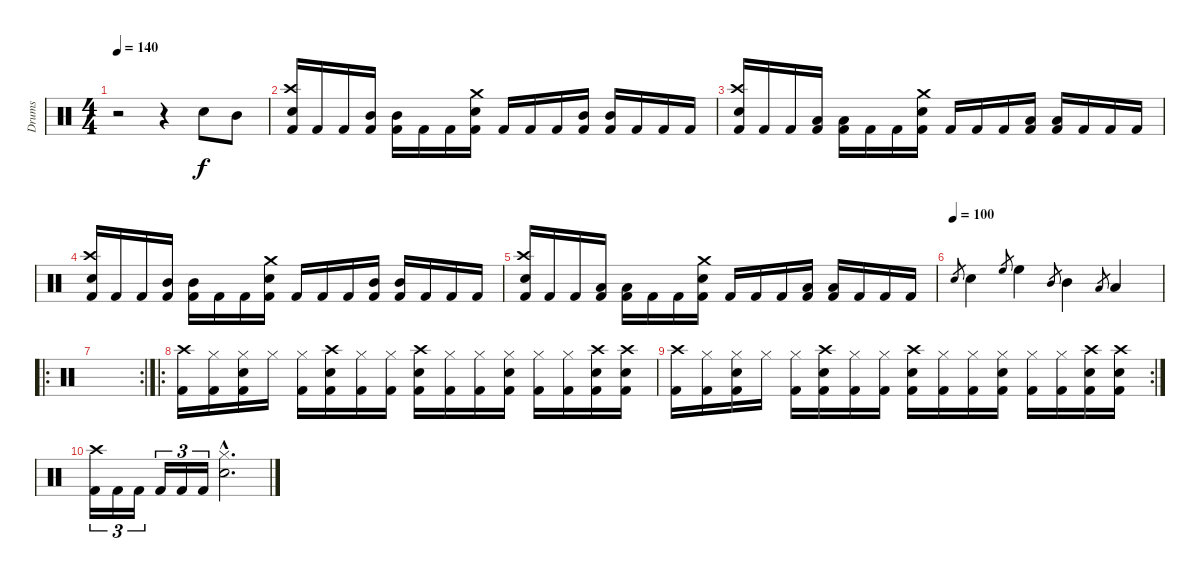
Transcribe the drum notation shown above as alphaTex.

\track ("Drums" "Drums") {instrument percussion}
\staff {score}
\articulation defaults
\ts (4 4)
\tempo 140
\clef neutral
\ks c
r.2{dy f} r.4 "Snare (hit) 2".8 "Mid Tom (hit)".8 |
("Crash high (hit)" "Snare (hit) 2" "Kick (hit) 2").16 "Kick (hit) 2".16 "Kick (hit) 2".16 ("Mid Tom (hit)" "Kick (hit) 2").16 ("Mid Tom (hit)" "Kick (hit) 2").16 "Kick (hit) 2".16 "Kick (hit) 2".16 ("Snare (hit) 2" "Crash medium (hit)" "Kick (hit) 2").16 "Kick (hit) 2".16 "Kick (hit) 2".16 "Kick (hit) 2".16 ("Mid Tom (hit)" "Kick (hit) 2").16 ("Mid Tom (hit)" "Kick (hit) 2").16 "Kick (hit) 2".16 "Kick (hit) 2".16 "Kick (hit) 2".16 |
("Crash high (hit)" "Snare (hit) 2" "Kick (hit) 2").16 "Kick (hit) 2".16 "Kick (hit) 2".16 ("Low Floor Tom (hit)" "Kick (hit) 2").16 ("Low Floor Tom (hit)" "Kick (hit) 2").16 "Kick (hit) 2".16 "Kick (hit) 2".16 ("Crash medium (hit)" "Snare (hit) 2" "Kick (hit) 2").16 "Kick (hit) 2".16 "Kick (hit) 2".16 "Kick (hit) 2".16 ("Low Floor Tom (hit)" "Kick (hit) 2").16 ("Low Floor Tom (hit)" "Kick (hit) 2").16 "Kick (hit) 2".16 "Kick (hit) 2".16 "Kick (hit) 2".16 |
("Crash high (hit)" "Snare (hit) 2" "Kick (hit) 2").16 "Kick (hit) 2".16 "Kick (hit) 2".16 ("Mid Tom (hit)" "Kick (hit) 2").16 ("Mid Tom (hit)" "Kick (hit) 2").16 "Kick (hit) 2".16 "Kick (hit) 2".16 ("Snare (hit) 2" "Crash medium (hit)" "Kick (hit) 2").16 "Kick (hit) 2".16 "Kick (hit) 2".16 "Kick (hit) 2".16 ("Mid Tom (hit)" "Kick (hit) 2").16 ("Mid Tom (hit)" "Kick (hit) 2").16 "Kick (hit) 2".16 "Kick (hit) 2".16 "Kick (hit) 2".16 |
("Crash high (hit)" "Snare (hit) 2" "Kick (hit) 2").16 "Kick (hit) 2".16 "Kick (hit) 2".16 ("Low Floor Tom (hit)" "Kick (hit) 2").16 ("Low Floor Tom (hit)" "Kick (hit) 2").16 "Kick (hit) 2".16 "Kick (hit) 2".16 ("Crash medium (hit)" "Snare (hit) 2" "Kick (hit) 2").16 "Kick (hit) 2".16 "Kick (hit) 2".16 "Kick (hit) 2".16 ("Low Floor Tom (hit)" "Kick (hit) 2").16 ("Low Floor Tom (hit)" "Kick (hit) 2").16 "Kick (hit) 2".16 "Kick (hit) 2".16 "Kick (hit) 2".16 |
\tempo (100)
"Snare (hit) 2".8{gr} "Snare (hit) 2".4 "High Floor Tom (hit)".8{gr} "High Floor Tom (hit)".4 "Mid Tom (hit)".8{gr} "Mid Tom (hit)".4 "Low Tom (hit)".8{gr} "Low Tom (hit)".4 |
\ro
\rc 2
|
\ro
("Crash high (hit)" "Kick (hit) 2").16 ("Hi-Hat (closed)" "Kick (hit) 2").16 ("Hi-Hat (closed)" "Snare (hit) 2" "Kick (hit) 2").16 "Hi-Hat (closed)".16 ("Hi-Hat (closed)" "Kick (hit) 2").16 ("Crash high (hit)" "Snare (hit) 2" "Kick (hit) 2").16 ("Hi-Hat (closed)" "Kick (hit) 2").16 ("Hi-Hat (closed)" "Kick (hit) 2").16 ("Crash high (hit)" "Snare (hit) 2" "Kick (hit) 2").16 ("Hi-Hat (closed)" "Kick (hit) 2").16 ("Hi-Hat (closed)" "Kick (hit) 2").16 ("Snare (hit) 2" "Hi-Hat (closed)" "Kick (hit) 2").16 ("Hi-Hat (closed)" "Kick (hit) 2").16 ("Hi-Hat (closed)" "Kick (hit) 2").16 ("Snare (hit) 2" "Crash high (hit)" "Kick (hit) 2").16 ("Snare (hit) 2" "Crash high (hit)" "Kick (hit) 2").16 |
\rc 2
("Crash high (hit)" "Kick (hit) 2").16 ("Hi-Hat (closed)" "Kick (hit) 2").16 ("Hi-Hat (closed)" "Snare (hit) 2" "Kick (hit) 2").16 "Hi-Hat (closed)".16 ("Hi-Hat (closed)" "Kick (hit) 2").16 ("Crash high (hit)" "Snare (hit) 2" "Kick (hit) 2").16 ("Hi-Hat (closed)" "Kick (hit) 2").16 ("Hi-Hat (closed)" "Kick (hit) 2").16 ("Crash high (hit)" "Snare (hit) 2" "Kick (hit) 2").16 ("Hi-Hat (closed)" "Kick (hit) 2").16 ("Hi-Hat (closed)" "Kick (hit) 2").16 ("Snare (hit) 2" "Hi-Hat (closed)" "Kick (hit) 2").16 ("Hi-Hat (closed)" "Kick (hit) 2").16 ("Hi-Hat (closed)" "Kick (hit) 2").16 ("Snare (hit) 2" "Crash high (hit)" "Kick (hit) 2").16 ("Snare (hit) 2" "Crash high (hit)" "Kick (hit) 2").16 |
("Crash high (hit)" "Kick (hit) 2").16{tu (3 2)} "Kick (hit) 2".16{tu (3 2)} "Kick (hit) 2".16{tu (3 2)} "Kick (hit) 2".16{tu (3 2)} "Kick (hit) 2".16{tu (3 2)} "Kick (hit) 2".16{tu (3 2)} ("Hi-Hat (closed)"{hac} "Snare (hit) 2"{hac}).2{d}
